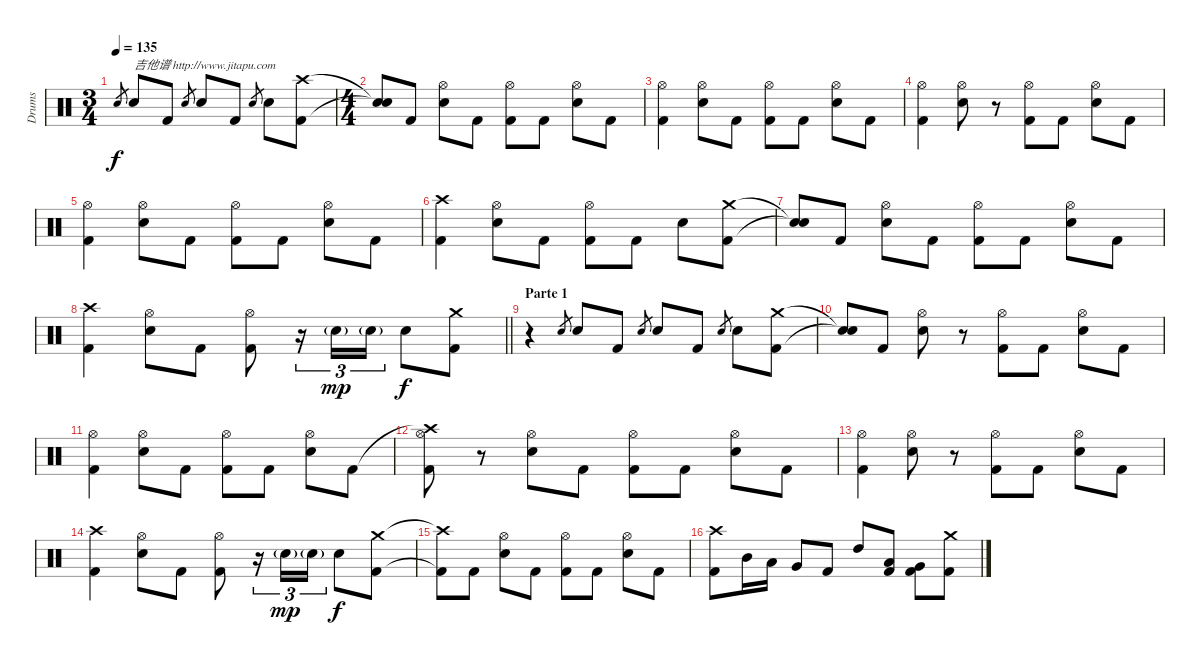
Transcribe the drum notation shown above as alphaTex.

\track ("Drums" "Drums") {instrument percussion}
\staff {score}
\articulation defaults
\ts (3 4)
\tempo 135
\clef neutral
\ks c "Electric Snare (hit)".8{gr dy f} "Electric Snare (hit)".8{txt "吉他谱 http://www.jitapu.com"} "Kick (hit) 2".8 "Electric Snare (hit)".8{gr} "Electric Snare (hit)".8 "Kick (hit) 2".8 "Electric Snare (hit)".8{gr} "Electric Snare (hit)".8
("Crash high (hit)" "Kick (hit) 2").8 |
\ts (4 4)
("Snare (hit)"{t} "Snare (hit)"{t}).8 "Kick (hit) 2".8 ("Hi-Hat (open)" "Electric Snare (hit)").8 "Kick (hit) 2".8 ("Hi-Hat (open)" "Kick (hit) 2").8 "Kick (hit) 2".8 ("Hi-Hat (open)" "Electric Snare (hit)").8 "Kick (hit) 2".8 |
("Hi-Hat (open)" "Kick (hit) 2").4 ("Hi-Hat (open)" "Electric Snare (hit)").8 "Kick (hit) 2".8 ("Hi-Hat (open)" "Kick (hit) 2").8 "Kick (hit) 2".8 ("Hi-Hat (open)" "Electric Snare (hit)").8 "Kick (hit) 2".8 |
("Hi-Hat (open)" "Kick (hit) 2").4 ("Hi-Hat (open)" "Electric Snare (hit)").8 r.8 ("Hi-Hat (open)" "Kick (hit) 2").8 "Kick (hit) 2".8 ("Hi-Hat (open)" "Electric Snare (hit)").8 "Kick (hit) 2".8 |
("Hi-Hat (open)" "Kick (hit) 2").4 ("Hi-Hat (open)" "Electric Snare (hit)").8 "Kick (hit) 2".8 ("Hi-Hat (open)" "Kick (hit) 2").8 "Kick (hit) 2".8 ("Hi-Hat (open)" "Electric Snare (hit)").8 "Kick (hit) 2".8 |
("Crash high (hit)" "Kick (hit) 2").4 ("Hi-Hat (open)" "Electric Snare (hit)").8 "Kick (hit) 2".8 ("Hi-Hat (open)" "Kick (hit) 2").8 "Kick (hit) 2".8 "Electric Snare (hit)".8 ("Crash medium (hit)" "Kick (hit) 2").8 |
("Snare (hit)"{t} "Snare (hit)"{t}).8 "Kick (hit) 2".8 ("Hi-Hat (open)" "Electric Snare (hit)").8 "Kick (hit) 2".8 ("Hi-Hat (open)" "Kick (hit) 2").8 "Kick (hit) 2".8 ("Hi-Hat (open)" "Electric Snare (hit)").8 "Kick (hit) 2".8 |
\barLineRight lightlight
("Crash high (hit)" "Kick (hit) 2").4 ("Hi-Hat (open)" "Electric Snare (hit)").8 "Kick (hit) 2".8 ("Hi-Hat (open)" "Kick (hit) 2").8 r.16{tu (3 2)} "Electric Snare (hit)"{g}.16{tu (3 2) dy mp} "Electric Snare (hit)"{g}.16{tu (3 2)} "Electric Snare (hit)".8{dy f} ("Crash medium (hit)" "Kick (hit) 2").8 |
\section ("" "Parte 1")
r.4 "Electric Snare (hit)".8{gr} "Electric Snare (hit)".8 "Kick (hit) 2".8 "Electric Snare (hit)".8{gr} "Electric Snare (hit)".8 "Kick (hit) 2".8 "Electric Snare (hit)".8{gr} "Electric Snare (hit)".8 ("Crash medium (hit)" "Kick (hit) 2").8 |
("Snare (hit)"{t} "Snare (hit)"{t}).8 "Kick (hit) 2".8 ("Hi-Hat (open)" "Electric Snare (hit)").8 r.8 ("Hi-Hat (open)" "Kick (hit) 2").8 "Kick (hit) 2".8 ("Hi-Hat (open)" "Electric Snare (hit)").8 "Kick (hit) 2".8 |
("Hi-Hat (open)" "Kick (hit) 2").4 ("Hi-Hat (open)" "Electric Snare (hit)").8 "Kick (hit) 2".8 ("Hi-Hat (open)" "Kick (hit) 2").8 "Kick (hit) 2".8 ("Hi-Hat (open)" "Electric Snare (hit)").8 "Kick (hit) 2".8 |
("Crash high (hit)"{t} "Hi-Hat (open)" "Kick (hit) 2").8 r.8 ("Hi-Hat (open)" "Electric Snare (hit)").8 "Kick (hit) 2".8 ("Hi-Hat (open)" "Kick (hit) 2").8 "Kick (hit) 2".8 ("Hi-Hat (open)" "Electric Snare (hit)").8 "Kick (hit) 2".8 |
("Hi-Hat (open)" "Kick (hit) 2").4 ("Hi-Hat (open)" "Electric Snare (hit)").8 r.8 ("Hi-Hat (open)" "Kick (hit) 2").8 "Kick (hit) 2".8 ("Hi-Hat (open)" "Electric Snare (hit)").8 "Kick (hit) 2".8 |
("Crash high (hit)" "Kick (hit) 2").4 ("Hi-Hat (open)" "Electric Snare (hit)").8 "Kick (hit) 2".8 ("Hi-Hat (open)" "Kick (hit) 2").8 r.16{tu (3 2)} "Electric Snare (hit)"{g}.16{tu (3 2) dy mp} "Electric Snare (hit)"{g}.16{tu (3 2)} "Electric Snare (hit)".8{dy f} ("Crash medium (hit)" "Kick (hit) 2").8 |
("Crash high (hit)"{t} "Kick (hit) 2"{t}).8 "Kick (hit) 2".8 ("Hi-Hat (open)" "Electric Snare (hit)").8 "Kick (hit) 2".8 ("Hi-Hat (open)" "Kick (hit) 2").8 "Kick (hit) 2".8 ("Hi-Hat (open)" "Electric Snare (hit)").8 "Kick (hit) 2".8 |
("Crash high (hit)" "Kick (hit) 2").8 "Mid Tom (hit)".16 "Low Tom (hit)".16 "Very Low Tom (hit)".8 "Kick (hit) 2".8 "High Tom (hit)".8 ("Low Tom (hit)" "Kick (hit) 2").8 ("Very Low Tom (hit)" "Kick (hit) 2").8 ("Crash medium (hit)" "Kick (hit) 2").8
